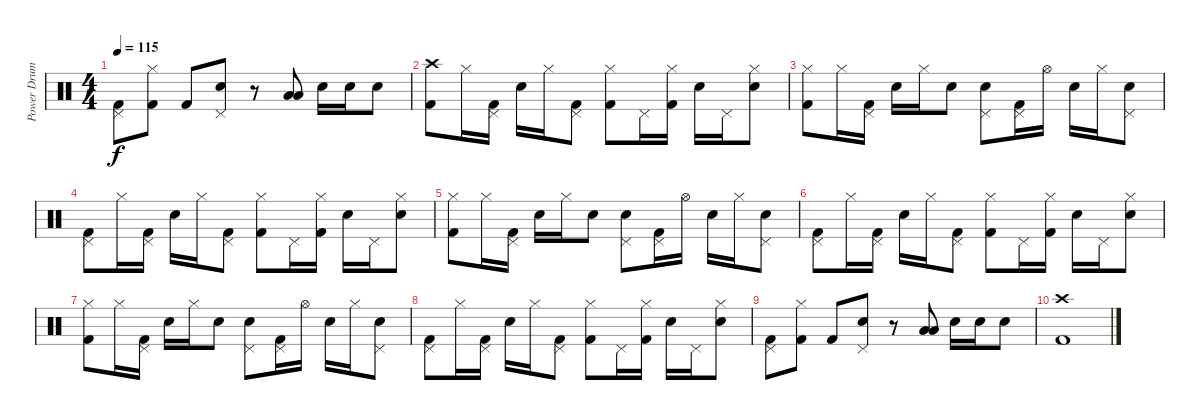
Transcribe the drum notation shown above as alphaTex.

\track ("Power Drums" "Power Drum") {instrument percussion}
\staff {score}
\articulation defaults
\ts (4 4)
\tempo 115
\clef neutral
\ks c
("Kick (hit) 2" "Pedal Hi-Hat (hit)").8{dy f} ("Kick (hit) 2" "Hi-Hat (closed)").8 "Kick (hit) 2".8 ("Electric Snare (hit)" "Pedal Hi-Hat (hit)").8 r.8 ("Low Tom (hit)" "Low Tom (hit)").8 "Snare (hit) 2".16 "Electric Snare (hit)".16 "Snare (hit) 2".8 |
("Kick (hit) 2" "Crash high (hit)").8 "Hi-Hat (closed)".16 ("Kick (hit) 2" "Pedal Hi-Hat (hit)").16 "Snare (hit) 2".16 "Hi-Hat (closed)".16 ("Kick (hit) 2" "Pedal Hi-Hat (hit)").8 ("Kick (hit) 2" "Hi-Hat (closed)").8 "Pedal Hi-Hat (hit)".16 ("Kick (hit) 2" "Hi-Hat (closed)").16 "Snare (hit) 2".16 "Pedal Hi-Hat (hit)".16 ("Electric Snare (hit)" "Hi-Hat (closed)").8 |
("Kick (hit) 2" "Hi-Hat (closed)").8 "Hi-Hat (closed)".16 ("Kick (hit) 2" "Pedal Hi-Hat (hit)").16 "Snare (hit) 2".16 "Hi-Hat (closed)".16 "Snare (hit) 2".8 ("Electric Snare (hit)" "Pedal Hi-Hat (hit)").8 ("Kick (hit) 2" "Pedal Hi-Hat (hit)").16 "Hi-Hat (open)".16 "Snare (hit) 2".16 "Hi-Hat (closed)".16 ("Electric Snare (hit)" "Pedal Hi-Hat (hit)").8 |
("Kick (hit) 2" "Pedal Hi-Hat (hit)").8 "Hi-Hat (closed)".16 ("Kick (hit) 2" "Pedal Hi-Hat (hit)").16 "Snare (hit) 2".16 "Hi-Hat (closed)".16 ("Kick (hit) 2" "Pedal Hi-Hat (hit)").8 ("Kick (hit) 2" "Hi-Hat (closed)").8 "Pedal Hi-Hat (hit)".16 ("Kick (hit) 2" "Hi-Hat (closed)").16 "Snare (hit) 2".16 "Pedal Hi-Hat (hit)".16 ("Electric Snare (hit)" "Hi-Hat (closed)").8 |
("Kick (hit) 2" "Hi-Hat (closed)").8 "Hi-Hat (closed)".16 ("Kick (hit) 2" "Pedal Hi-Hat (hit)").16 "Snare (hit) 2".16 "Hi-Hat (closed)".16 "Snare (hit) 2".8 ("Electric Snare (hit)" "Pedal Hi-Hat (hit)").8 ("Kick (hit) 2" "Pedal Hi-Hat (hit)").16 "Hi-Hat (open)".16 "Snare (hit) 2".16 "Hi-Hat (closed)".16 ("Electric Snare (hit)" "Pedal Hi-Hat (hit)").8 |
("Kick (hit) 2" "Pedal Hi-Hat (hit)").8 "Hi-Hat (closed)".16 ("Kick (hit) 2" "Pedal Hi-Hat (hit)").16 "Snare (hit) 2".16 "Hi-Hat (closed)".16 ("Kick (hit) 2" "Pedal Hi-Hat (hit)").8 ("Kick (hit) 2" "Hi-Hat (closed)").8 "Pedal Hi-Hat (hit)".16 ("Kick (hit) 2" "Hi-Hat (closed)").16 "Snare (hit) 2".16 "Pedal Hi-Hat (hit)".16 ("Electric Snare (hit)" "Hi-Hat (closed)").8 |
("Kick (hit) 2" "Hi-Hat (closed)").8 "Hi-Hat (closed)".16 ("Kick (hit) 2" "Pedal Hi-Hat (hit)").16 "Snare (hit) 2".16 "Hi-Hat (closed)".16 "Snare (hit) 2".8 ("Electric Snare (hit)" "Pedal Hi-Hat (hit)").8 ("Kick (hit) 2" "Pedal Hi-Hat (hit)").16 "Hi-Hat (open)".16 "Snare (hit) 2".16 "Hi-Hat (closed)".16 ("Electric Snare (hit)" "Pedal Hi-Hat (hit)").8 |
("Kick (hit) 2" "Pedal Hi-Hat (hit)").8 "Hi-Hat (closed)".16 ("Kick (hit) 2" "Pedal Hi-Hat (hit)").16 "Snare (hit) 2".16 "Hi-Hat (closed)".16 ("Kick (hit) 2" "Pedal Hi-Hat (hit)").8 ("Kick (hit) 2" "Hi-Hat (closed)").8 "Pedal Hi-Hat (hit)".16 ("Kick (hit) 2" "Hi-Hat (closed)").16 "Snare (hit) 2".16 "Pedal Hi-Hat (hit)".16 ("Electric Snare (hit)" "Hi-Hat (closed)").8 |
("Kick (hit) 2" "Pedal Hi-Hat (hit)").8 ("Kick (hit) 2" "Hi-Hat (closed)").8 "Kick (hit) 2".8 ("Electric Snare (hit)" "Pedal Hi-Hat (hit)").8 r.8 ("Low Tom (hit)" "Low Tom (hit)").8 "Snare (hit) 2".16 "Electric Snare (hit)".16 "Snare (hit) 2".8 |
("Kick (hit) 2" "Crash high (hit)").1
